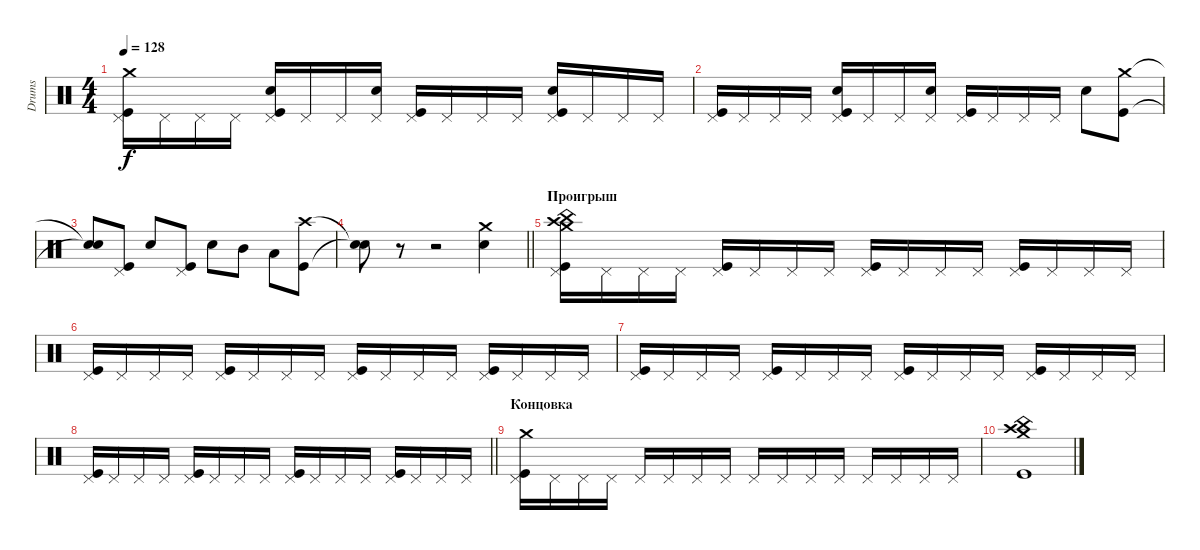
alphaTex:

\track ("Drums" "Drums") {instrument percussion}
\staff {score}
\articulation defaults
\ts (4 4)
\tempo 128
\clef neutral
\ks c
("Kick (hit)" "Pedal Hi-Hat (hit)" "Crash medium (hit)").16{dy f} "Pedal Hi-Hat (hit)".16 "Pedal Hi-Hat (hit)".16 "Pedal Hi-Hat (hit)".16 ("Kick (hit)" "Pedal Hi-Hat (hit)" "Snare (hit) 2").16 "Pedal Hi-Hat (hit)".16 "Pedal Hi-Hat (hit)".16 ("Pedal Hi-Hat (hit)" "Snare (hit) 2").16 ("Kick (hit)" "Pedal Hi-Hat (hit)").16 "Pedal Hi-Hat (hit)".16 "Pedal Hi-Hat (hit)".16 "Pedal Hi-Hat (hit)".16 ("Kick (hit)" "Pedal Hi-Hat (hit)" "Snare (hit) 2").16 "Pedal Hi-Hat (hit)".16 "Pedal Hi-Hat (hit)".16 "Pedal Hi-Hat (hit)".16 |
("Kick (hit)" "Pedal Hi-Hat (hit)").16 "Pedal Hi-Hat (hit)".16 "Pedal Hi-Hat (hit)".16 "Pedal Hi-Hat (hit)".16 ("Kick (hit)" "Pedal Hi-Hat (hit)" "Snare (hit) 2").16 "Pedal Hi-Hat (hit)".16 "Pedal Hi-Hat (hit)".16 ("Pedal Hi-Hat (hit)" "Snare (hit) 2").16 ("Kick (hit)" "Pedal Hi-Hat (hit)").16 "Pedal Hi-Hat (hit)".16 "Pedal Hi-Hat (hit)".16 "Pedal Hi-Hat (hit)".16 "Snare (hit) 2".8 ("Kick (hit)" "Crash medium (hit)").8 |
("Snare (hit)"{t} "Snare (hit)"{t}).8 ("Kick (hit)" "Pedal Hi-Hat (hit)").8 "Snare (hit) 2".8 ("Kick (hit)" "Pedal Hi-Hat (hit)").8 "Snare (hit) 2".8 "Mid Tom (hit)".8 "Low Tom (hit)".8 ("Kick (hit)" "Crash high (hit)").8 |
\barLineRight lightlight
("Snare (hit)"{t} "Snare (hit)"{t}).8 r.8 r.2 ("Snare (hit) 2" "Crash medium (hit)").4 |
\section ("" "Проигрыш")
("Kick (hit)" "Pedal Hi-Hat (hit)" "Crash high (hit)" "Crash medium (hit)" "China (hit)").16 "Pedal Hi-Hat (hit)".16 "Pedal Hi-Hat (hit)".16 "Pedal Hi-Hat (hit)".16 ("Kick (hit)" "Pedal Hi-Hat (hit)").16 "Pedal Hi-Hat (hit)".16 "Pedal Hi-Hat (hit)".16 "Pedal Hi-Hat (hit)".16 ("Kick (hit)" "Pedal Hi-Hat (hit)").16 "Pedal Hi-Hat (hit)".16 "Pedal Hi-Hat (hit)".16 "Pedal Hi-Hat (hit)".16 ("Kick (hit)" "Pedal Hi-Hat (hit)").16 "Pedal Hi-Hat (hit)".16 "Pedal Hi-Hat (hit)".16 "Pedal Hi-Hat (hit)".16 |
("Kick (hit)" "Pedal Hi-Hat (hit)").16 "Pedal Hi-Hat (hit)".16 "Pedal Hi-Hat (hit)".16 "Pedal Hi-Hat (hit)".16 ("Kick (hit)" "Pedal Hi-Hat (hit)").16 "Pedal Hi-Hat (hit)".16 "Pedal Hi-Hat (hit)".16 "Pedal Hi-Hat (hit)".16 ("Kick (hit)" "Pedal Hi-Hat (hit)").16 "Pedal Hi-Hat (hit)".16 "Pedal Hi-Hat (hit)".16 "Pedal Hi-Hat (hit)".16 ("Kick (hit)" "Pedal Hi-Hat (hit)").16 "Pedal Hi-Hat (hit)".16 "Pedal Hi-Hat (hit)".16 "Pedal Hi-Hat (hit)".16 |
("Kick (hit)" "Pedal Hi-Hat (hit)").16 "Pedal Hi-Hat (hit)".16 "Pedal Hi-Hat (hit)".16 "Pedal Hi-Hat (hit)".16 ("Kick (hit)" "Pedal Hi-Hat (hit)").16 "Pedal Hi-Hat (hit)".16 "Pedal Hi-Hat (hit)".16 "Pedal Hi-Hat (hit)".16 ("Kick (hit)" "Pedal Hi-Hat (hit)").16 "Pedal Hi-Hat (hit)".16 "Pedal Hi-Hat (hit)".16 "Pedal Hi-Hat (hit)".16 ("Kick (hit)" "Pedal Hi-Hat (hit)").16 "Pedal Hi-Hat (hit)".16 "Pedal Hi-Hat (hit)".16 "Pedal Hi-Hat (hit)".16 |
\barLineRight lightlight
("Kick (hit)" "Pedal Hi-Hat (hit)").16 "Pedal Hi-Hat (hit)".16 "Pedal Hi-Hat (hit)".16 "Pedal Hi-Hat (hit)".16 ("Kick (hit)" "Pedal Hi-Hat (hit)").16 "Pedal Hi-Hat (hit)".16 "Pedal Hi-Hat (hit)".16 "Pedal Hi-Hat (hit)".16 ("Kick (hit)" "Pedal Hi-Hat (hit)").16 "Pedal Hi-Hat (hit)".16 "Pedal Hi-Hat (hit)".16 "Pedal Hi-Hat (hit)".16 ("Kick (hit)" "Pedal Hi-Hat (hit)").16 "Pedal Hi-Hat (hit)".16 "Pedal Hi-Hat (hit)".16 "Pedal Hi-Hat (hit)".16 |
\section ("" "Концовка")
("Kick (hit)" "Pedal Hi-Hat (hit)" "Crash medium (hit)").16 "Pedal Hi-Hat (hit)".16 "Pedal Hi-Hat (hit)".16 "Pedal Hi-Hat (hit)".16 "Pedal Hi-Hat (hit)".16 "Pedal Hi-Hat (hit)".16 "Pedal Hi-Hat (hit)".16 "Pedal Hi-Hat (hit)".16 "Pedal Hi-Hat (hit)".16 "Pedal Hi-Hat (hit)".16 "Pedal Hi-Hat (hit)".16 "Pedal Hi-Hat (hit)".16 "Pedal Hi-Hat (hit)".16 "Pedal Hi-Hat (hit)".16 "Pedal Hi-Hat (hit)".16 "Pedal Hi-Hat (hit)".16 |
("Kick (hit)" "Crash medium (hit)" "Crash high (hit)" "China (hit)").1
